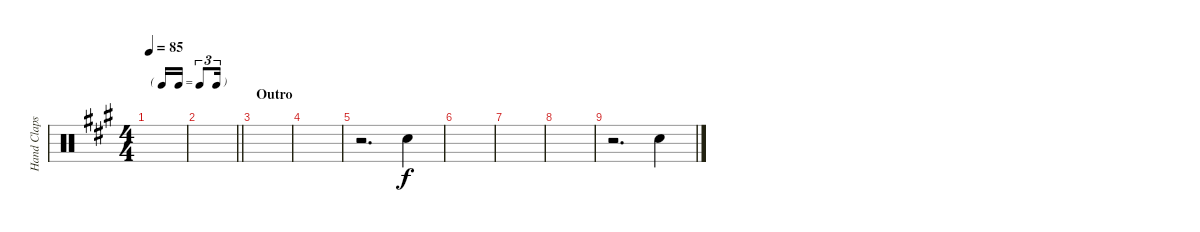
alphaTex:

\track ("Hand Claps" "Hand Claps") {instrument percussion}
\staff {score}
\articulation defaults
\ts (4 4)
\tf triplet16th
\tempo 85
\clef neutral
\ks a
|
\barLineRight lightlight
|
\section ("" "Outro")
|
|
r.2{d} "Hand Clap (hit)".4 |
|
|
|
r.2{d} "Hand Clap (hit)".4
